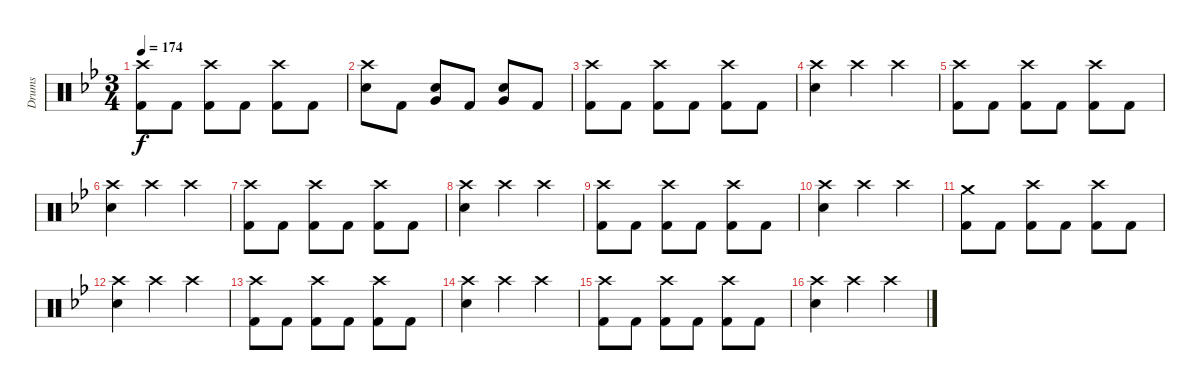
\bracketExtendMode groupsimilarinstruments
\track ("Drumkit" "Drums") {instrument percussion}
\staff {score}
\articulation defaults
\ts (3 4)
\tempo 174
\clef neutral
\ks bb
("Crash high (hit)"{acc forcenatural} "Kick (hit) 2"{acc forcenatural}).8{dy f} "Kick (hit) 2"{acc forcenatural}.8 ("Crash high (hit)"{acc forcenatural} "Kick (hit) 2"{acc forcenatural}).8 "Kick (hit) 2"{acc forcenatural}.8 ("Crash high (hit)"{acc forcenatural} "Kick (hit) 2"{acc forcenatural}).8 "Kick (hit) 2"{acc forcenatural}.8 |
("Crash high (hit)"{acc forcenatural} "Snare (hit) 2"{acc forcenatural}).8 "Kick (hit) 2"{acc forcenatural}.8 ("Snare (hit) 2"{acc forcenatural} "Very Low Tom (hit)"{acc forcenatural}).8 "Kick (hit) 2"{acc forcenatural}.8 ("Snare (hit) 2"{acc forcenatural} "Very Low Tom (hit)"{acc forcenatural}).8 "Kick (hit) 2"{acc forcenatural}.8 |
("Crash high (hit)"{acc forcenatural} "Kick (hit) 2"{acc forcenatural}).8 "Kick (hit) 2"{acc forcenatural}.8 ("Crash high (hit)"{acc forcenatural} "Kick (hit) 2"{acc forcenatural}).8 "Kick (hit) 2"{acc forcenatural}.8 ("Crash high (hit)"{acc forcenatural} "Kick (hit) 2"{acc forcenatural}).8 "Kick (hit) 2"{acc forcenatural}.8 |
("Crash high (hit)"{acc forcenatural} "Snare (hit) 2"{acc forcenatural}).4 "Crash high (hit)"{acc forcenatural}.4 "Crash high (hit)"{acc forcenatural}.4 |
("Crash high (hit)"{acc forcenatural} "Kick (hit) 2"{acc forcenatural}).8 "Kick (hit) 2"{acc forcenatural}.8 ("Crash high (hit)"{acc forcenatural} "Kick (hit) 2"{acc forcenatural}).8 "Kick (hit) 2"{acc forcenatural}.8 ("Crash high (hit)"{acc forcenatural} "Kick (hit) 2"{acc forcenatural}).8 "Kick (hit) 2"{acc forcenatural}.8 |
("Crash high (hit)"{acc forcenatural} "Snare (hit) 2"{acc forcenatural}).4 "Crash high (hit)"{acc forcenatural}.4 "Crash high (hit)"{acc forcenatural}.4 |
("Crash high (hit)"{acc forcenatural} "Kick (hit) 2"{acc forcenatural}).8 "Kick (hit) 2"{acc forcenatural}.8 ("Crash high (hit)"{acc forcenatural} "Kick (hit) 2"{acc forcenatural}).8 "Kick (hit) 2"{acc forcenatural}.8 ("Crash high (hit)"{acc forcenatural} "Kick (hit) 2"{acc forcenatural}).8 "Kick (hit) 2"{acc forcenatural}.8 |
("Crash high (hit)"{acc forcenatural} "Snare (hit) 2"{acc forcenatural}).4 "Crash high (hit)"{acc forcenatural}.4 "Crash high (hit)"{acc forcenatural}.4 |
("Crash high (hit)"{acc forcenatural} "Kick (hit) 2"{acc forcenatural}).8 "Kick (hit) 2"{acc forcenatural}.8 ("Crash high (hit)"{acc forcenatural} "Kick (hit) 2"{acc forcenatural}).8 "Kick (hit) 2"{acc forcenatural}.8 ("Crash high (hit)"{acc forcenatural} "Kick (hit) 2"{acc forcenatural}).8 "Kick (hit) 2"{acc forcenatural}.8 |
("Crash high (hit)"{acc forcenatural} "Snare (hit) 2"{acc forcenatural}).4 "Crash high (hit)"{acc forcenatural}.4 "Crash high (hit)"{acc forcenatural}.4 |
("Crash medium (hit)"{acc forcenatural} "Kick (hit) 2"{acc forcenatural}).8 "Kick (hit) 2"{acc forcenatural}.8 ("Crash high (hit)"{acc forcenatural} "Kick (hit) 2"{acc forcenatural}).8 "Kick (hit) 2"{acc forcenatural}.8 ("Crash high (hit)"{acc forcenatural} "Kick (hit) 2"{acc forcenatural}).8 "Kick (hit) 2"{acc forcenatural}.8 |
("Crash high (hit)"{acc forcenatural} "Snare (hit) 2"{acc forcenatural}).4 "Crash high (hit)"{acc forcenatural}.4 "Crash high (hit)"{acc forcenatural}.4 |
("Crash high (hit)"{acc forcenatural} "Kick (hit) 2"{acc forcenatural}).8 "Kick (hit) 2"{acc forcenatural}.8 ("Crash high (hit)"{acc forcenatural} "Kick (hit) 2"{acc forcenatural}).8 "Kick (hit) 2"{acc forcenatural}.8 ("Crash high (hit)"{acc forcenatural} "Kick (hit) 2"{acc forcenatural}).8 "Kick (hit) 2"{acc forcenatural}.8 |
("Crash high (hit)"{acc forcenatural} "Snare (hit) 2"{acc forcenatural}).4 "Crash high (hit)"{acc forcenatural}.4 "Crash high (hit)"{acc forcenatural}.4 |
("Crash high (hit)"{acc forcenatural} "Kick (hit) 2"{acc forcenatural}).8 "Kick (hit) 2"{acc forcenatural}.8 ("Crash high (hit)"{acc forcenatural} "Kick (hit) 2"{acc forcenatural}).8 "Kick (hit) 2"{acc forcenatural}.8 ("Crash high (hit)"{acc forcenatural} "Kick (hit) 2"{acc forcenatural}).8 "Kick (hit) 2"{acc forcenatural}.8 |
("Crash high (hit)"{acc forcenatural} "Snare (hit) 2"{acc forcenatural}).4 "Crash high (hit)"{acc forcenatural}.4 "Crash high (hit)"{acc forcenatural}.4
